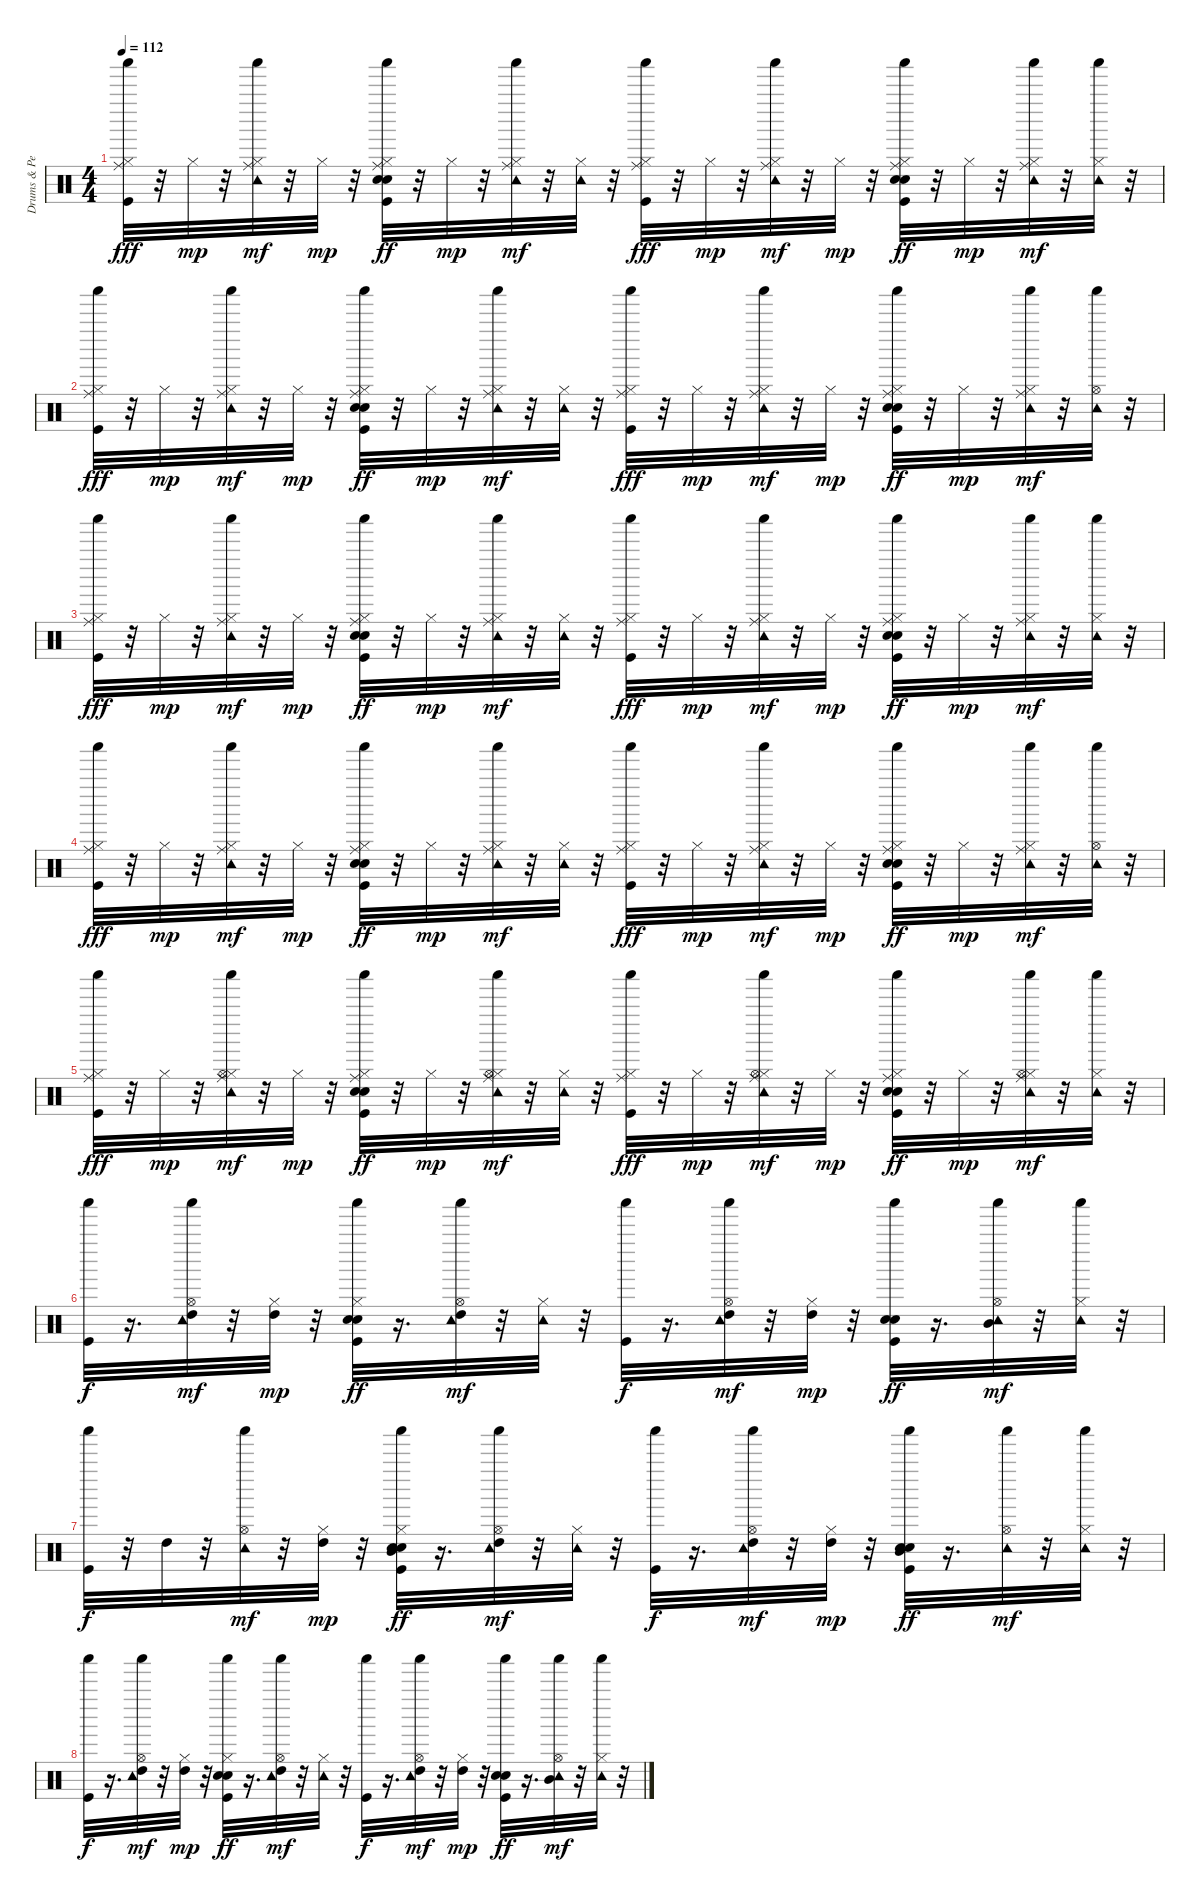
\track ("Drums & Percussion" "Drums & Pe") {instrument percussion}
\staff {score}
\articulation defaults
\ts (4 4)
\tempo 112
\clef neutral
\ks c
("Shaker (hit)" "Hi-Hat (closed)" "Ride (middle)" "Kick (hit)").32{dy fff} r.32 "Hi-Hat (closed)".32{dy mp} r.32 ("Shaker (hit)" "Hi-Hat (closed)" "Ride (middle)" "Tambourine (hit)").32{dy mf} r.32 "Hi-Hat (closed)".32{dy mp} r.32 ("Shaker (hit)" "Snare (hit) 2" "Hi-Hat (closed)" "Ride (middle)" "Hand Clap (hit)" "Kick (hit)").32{dy ff} r.32 "Hi-Hat (closed)".32{dy mp} r.32 ("Shaker (hit)" "Hi-Hat (closed)" "Ride (middle)" "Tambourine (hit)").32{dy mf} r.32 ("Hi-Hat (closed)" "Tambourine (hit)").32 r.32 ("Shaker (hit)" "Hi-Hat (closed)" "Ride (middle)" "Kick (hit)").32{dy fff} r.32 "Hi-Hat (closed)".32{dy mp} r.32 ("Shaker (hit)" "Hi-Hat (closed)" "Ride (middle)" "Tambourine (hit)").32{dy mf} r.32 "Hi-Hat (closed)".32{dy mp} r.32 ("Shaker (hit)" "Snare (hit) 2" "Hi-Hat (closed)" "Ride (middle)" "Hand Clap (hit)" "Kick (hit)").32{dy ff} r.32 "Hi-Hat (closed)".32{dy mp} r.32 ("Shaker (hit)" "Hi-Hat (closed)" "Ride (middle)" "Tambourine (hit)").32{dy mf} r.32 ("Shaker (hit)" "Hi-Hat (closed)" "Tambourine (hit)").32 r.32 |
("Shaker (hit)" "Hi-Hat (closed)" "Ride (middle)" "Kick (hit)").32{dy fff} r.32 "Hi-Hat (closed)".32{dy mp} r.32 ("Shaker (hit)" "Hi-Hat (closed)" "Ride (middle)" "Tambourine (hit)").32{dy mf} r.32 "Hi-Hat (closed)".32{dy mp} r.32 ("Shaker (hit)" "Snare (hit) 2" "Hi-Hat (closed)" "Ride (middle)" "Hand Clap (hit)" "Kick (hit)").32{dy ff} r.32 "Hi-Hat (closed)".32{dy mp} r.32 ("Shaker (hit)" "Hi-Hat (closed)" "Ride (middle)" "Tambourine (hit)").32{dy mf} r.32 ("Hi-Hat (closed)" "Tambourine (hit)").32 r.32 ("Shaker (hit)" "Hi-Hat (closed)" "Ride (middle)" "Kick (hit)").32{dy fff} r.32 "Hi-Hat (closed)".32{dy mp} r.32 ("Shaker (hit)" "Hi-Hat (closed)" "Ride (middle)" "Tambourine (hit)").32{dy mf} r.32 "Hi-Hat (closed)".32{dy mp} r.32 ("Shaker (hit)" "Snare (hit) 2" "Hi-Hat (closed)" "Ride (middle)" "Hand Clap (hit)" "Kick (hit)").32{dy ff} r.32 "Hi-Hat (closed)".32{dy mp} r.32 ("Shaker (hit)" "Hi-Hat (closed)" "Ride (middle)" "Tambourine (hit)").32{dy mf} r.32 ("Hi-Hat (open)" "Shaker (hit)" "Tambourine (hit)").32 r.32 |
("Shaker (hit)" "Hi-Hat (closed)" "Ride (middle)" "Kick (hit)").32{dy fff} r.32 "Hi-Hat (closed)".32{dy mp} r.32 ("Shaker (hit)" "Hi-Hat (closed)" "Ride (middle)" "Tambourine (hit)").32{dy mf} r.32 "Hi-Hat (closed)".32{dy mp} r.32 ("Shaker (hit)" "Snare (hit) 2" "Hi-Hat (closed)" "Ride (middle)" "Hand Clap (hit)" "Kick (hit)").32{dy ff} r.32 "Hi-Hat (closed)".32{dy mp} r.32 ("Shaker (hit)" "Hi-Hat (closed)" "Ride (middle)" "Tambourine (hit)").32{dy mf} r.32 ("Hi-Hat (closed)" "Tambourine (hit)").32 r.32 ("Shaker (hit)" "Hi-Hat (closed)" "Ride (middle)" "Kick (hit)").32{dy fff} r.32 "Hi-Hat (closed)".32{dy mp} r.32 ("Shaker (hit)" "Hi-Hat (closed)" "Ride (middle)" "Tambourine (hit)").32{dy mf} r.32 "Hi-Hat (closed)".32{dy mp} r.32 ("Shaker (hit)" "Snare (hit) 2" "Hi-Hat (closed)" "Ride (middle)" "Hand Clap (hit)" "Kick (hit)").32{dy ff} r.32 "Hi-Hat (closed)".32{dy mp} r.32 ("Shaker (hit)" "Hi-Hat (closed)" "Ride (middle)" "Tambourine (hit)").32{dy mf} r.32 ("Shaker (hit)" "Hi-Hat (closed)" "Tambourine (hit)").32 r.32 |
("Shaker (hit)" "Hi-Hat (closed)" "Ride (middle)" "Kick (hit)").32{dy fff} r.32 "Hi-Hat (closed)".32{dy mp} r.32 ("Shaker (hit)" "Hi-Hat (closed)" "Ride (middle)" "Tambourine (hit)").32{dy mf} r.32 "Hi-Hat (closed)".32{dy mp} r.32 ("Shaker (hit)" "Snare (hit) 2" "Hi-Hat (closed)" "Ride (middle)" "Hand Clap (hit)" "Kick (hit)").32{dy ff} r.32 "Hi-Hat (closed)".32{dy mp} r.32 ("Shaker (hit)" "Hi-Hat (closed)" "Ride (middle)" "Tambourine (hit)").32{dy mf} r.32 ("Hi-Hat (closed)" "Tambourine (hit)").32 r.32 ("Shaker (hit)" "Hi-Hat (closed)" "Ride (middle)" "Kick (hit)").32{dy fff} r.32 "Hi-Hat (closed)".32{dy mp} r.32 ("Shaker (hit)" "Hi-Hat (closed)" "Ride (middle)" "Tambourine (hit)").32{dy mf} r.32 "Hi-Hat (closed)".32{dy mp} r.32 ("Shaker (hit)" "Snare (hit) 2" "Hi-Hat (closed)" "Ride (middle)" "Hand Clap (hit)" "Kick (hit)").32{dy ff} r.32 "Hi-Hat (closed)".32{dy mp} r.32 ("Shaker (hit)" "Hi-Hat (closed)" "Ride (middle)" "Tambourine (hit)").32{dy mf} r.32 ("Hi-Hat (open)" "Shaker (hit)" "Tambourine (hit)").32 r.32 |
("Shaker (hit)" "Hi-Hat (closed)" "Ride (middle)" "Kick (hit)").32{dy fff} r.32 "Hi-Hat (closed)".32{dy mp} r.32 ("Shaker (hit)" "Hi-Hat (closed)" "Hi-Hat (open)" "Ride (middle)" "Tambourine (hit)").32{dy mf} r.32 "Hi-Hat (closed)".32{dy mp} r.32 ("Shaker (hit)" "Snare (hit) 2" "Hi-Hat (closed)" "Ride (middle)" "Hand Clap (hit)" "Kick (hit)").32{dy ff} r.32 "Hi-Hat (closed)".32{dy mp} r.32 ("Shaker (hit)" "Hi-Hat (closed)" "Hi-Hat (open)" "Ride (middle)" "Tambourine (hit)").32{dy mf} r.32 ("Hi-Hat (closed)" "Tambourine (hit)").32 r.32 ("Shaker (hit)" "Hi-Hat (closed)" "Ride (middle)" "Kick (hit)").32{dy fff} r.32 "Hi-Hat (closed)".32{dy mp} r.32 ("Shaker (hit)" "Hi-Hat (closed)" "Hi-Hat (open)" "Ride (middle)" "Tambourine (hit)").32{dy mf} r.32 "Hi-Hat (closed)".32{dy mp} r.32 ("Shaker (hit)" "Snare (hit) 2" "Hi-Hat (closed)" "Ride (middle)" "Hand Clap (hit)" "Kick (hit)").32{dy ff} r.32 "Hi-Hat (closed)".32{dy mp} r.32 ("Shaker (hit)" "Hi-Hat (closed)" "Hi-Hat (open)" "Ride (middle)" "Tambourine (hit)").32{dy mf} r.32 ("Shaker (hit)" "Hi-Hat (closed)" "Tambourine (hit)").32 r.32 |
("Shaker (hit)" "Kick (hit)").32{dy f} r.16{d} ("Shaker (hit)" "Hi-Hat (open)" "Tambourine (hit)" "High Tom (hit)").32{dy mf} r.32 ("Hi-Hat (closed)" "High Tom (hit)").32{dy mp} r.32 ("Shaker (hit)" "Snare (hit) 2" "Hi-Hat (closed)" "Hand Clap (hit)" "Kick (hit)").32{dy ff} r.16{d} ("Shaker (hit)" "Hi-Hat (open)" "Tambourine (hit)" "High Tom (hit)").32{dy mf} r.32 ("Hi-Hat (closed)" "Tambourine (hit)").32 r.32 ("Shaker (hit)" "Kick (hit)").32{dy f} r.16{d} ("Shaker (hit)" "Hi-Hat (open)" "Tambourine (hit)" "High Tom (hit)").32{dy mf} r.32 ("Hi-Hat (closed)" "High Tom (hit)").32{dy mp} r.32 ("Shaker (hit)" "Snare (hit) 2" "Hand Clap (hit)" "Kick (hit)").32{dy ff} r.16{d} ("Shaker (hit)" "Hi-Hat (open)" "Tambourine (hit)" "Mid Tom (hit)").32{dy mf} r.32 ("Hi-Hat (closed)" "Shaker (hit)" "Tambourine (hit)").32 r.32 |
("Shaker (hit)" "Kick (hit)").32{dy f} r.32 "High Tom (hit)".32 r.32 ("Shaker (hit)" "Hi-Hat (open)" "Tambourine (hit)").32{dy mf} r.32 ("Hi-Hat (closed)" "High Tom (hit)").32{dy mp} r.32 ("Shaker (hit)" "Snare (hit) 2" "Hi-Hat (closed)" "Hand Clap (hit)" "Mid Tom (hit)" "Kick (hit)").32{dy ff} r.16{d} ("Shaker (hit)" "Hi-Hat (open)" "Tambourine (hit)" "High Tom (hit)").32{dy mf} r.32 ("Hi-Hat (closed)" "Tambourine (hit)").32 r.32 ("Shaker (hit)" "Kick (hit)").32{dy f} r.16{d} ("Shaker (hit)" "Hi-Hat (open)" "Tambourine (hit)" "High Tom (hit)").32{dy mf} r.32 ("Hi-Hat (closed)" "High Tom (hit)").32{dy mp} r.32 ("Shaker (hit)" "Snare (hit) 2" "Hand Clap (hit)" "Mid Tom (hit)" "Kick (hit)").32{dy ff} r.16{d} ("Shaker (hit)" "Hi-Hat (open)" "Tambourine (hit)").32{dy mf} r.32 ("Hi-Hat (closed)" "Shaker (hit)" "Tambourine (hit)").32 r.32 |
("Shaker (hit)" "Kick (hit)").32{dy f} r.16{d} ("Shaker (hit)" "Hi-Hat (open)" "Tambourine (hit)" "High Tom (hit)").32{dy mf} r.32 ("Hi-Hat (closed)" "High Tom (hit)").32{dy mp} r.32 ("Shaker (hit)" "Snare (hit) 2" "Hi-Hat (closed)" "Hand Clap (hit)" "Kick (hit)").32{dy ff} r.16{d} ("Shaker (hit)" "Hi-Hat (open)" "Tambourine (hit)" "High Tom (hit)").32{dy mf} r.32 ("Hi-Hat (closed)" "Tambourine (hit)").32 r.32 ("Shaker (hit)" "Kick (hit)").32{dy f} r.16{d} ("Shaker (hit)" "Hi-Hat (open)" "Tambourine (hit)" "High Tom (hit)").32{dy mf} r.32 ("Hi-Hat (closed)" "High Tom (hit)").32{dy mp} r.32 ("Shaker (hit)" "Snare (hit) 2" "Hand Clap (hit)" "Kick (hit)").32{dy ff} r.16{d} ("Shaker (hit)" "Hi-Hat (open)" "Tambourine (hit)" "Mid Tom (hit)").32{dy mf} r.32 ("Hi-Hat (closed)" "Shaker (hit)" "Tambourine (hit)").32 r.32
